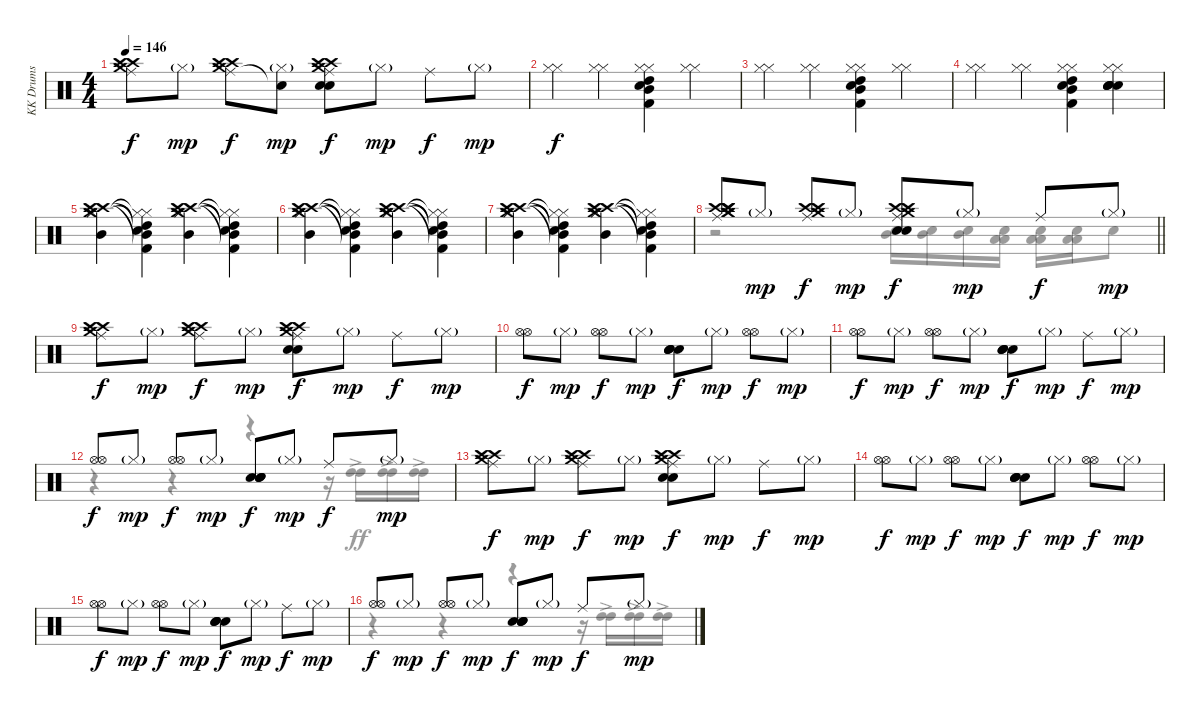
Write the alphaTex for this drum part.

\track ("KK Drums" "KK Drums") {instrument percussion}
\staff {score}
\articulation defaults
\voice
\ts (4 4)
\tempo 146
\clef neutral
\ks c
("Crash high (hit)" "Ride (middle)" "Crash medium (hit)" "Crash high (hit)").8{dy f} "Hi-Hat (closed)"{g}.8{dy mp} ("Crash high (hit)" "Ride (middle)" "Crash medium (hit)" "Crash high (hit)").8{dy f} ("Hi-Hat (closed)"{g} "Snare (hit)"{t}).8{dy mp} ("Crash high (hit)" "Ride (middle)" "Snare (hit) 2" "Snare (hit) 2" "Crash medium (hit)" "Crash high (hit)").8{dy f} "Hi-Hat (closed)"{g}.8{dy mp} "Ride (middle)".8{dy f} "Hi-Hat (closed)"{g}.8{dy mp} |
("Hi-Hat (closed)" "Hi-Hat (closed)").4{dy f} ("Hi-Hat (closed)" "Hi-Hat (closed)").4 ("Kick (hit) 2" "High Tom (hit)" "Mid Tom (hit)" "Hi-Hat (closed)" "Hi-Hat (closed)" "Snare (hit) 2").4 ("Hi-Hat (closed)" "Hi-Hat (closed)").4 |
("Hi-Hat (closed)" "Hi-Hat (closed)").4 ("Hi-Hat (closed)" "Hi-Hat (closed)").4 ("Kick (hit) 2" "High Tom (hit)" "Mid Tom (hit)" "Hi-Hat (closed)" "Hi-Hat (closed)" "Snare (hit) 2").4 ("Hi-Hat (closed)" "Hi-Hat (closed)").4 |
("Hi-Hat (closed)" "Hi-Hat (closed)").4 ("Hi-Hat (closed)" "Hi-Hat (closed)").4 ("Kick (hit) 2" "High Tom (hit)" "Mid Tom (hit)" "Hi-Hat (closed)" "Hi-Hat (closed)" "Snare (hit) 2").4 ("Snare (hit)" "Snare (hit)" "Snare (hit)" "Hi-Hat (closed)" "Hi-Hat (closed)" "Snare (hit)").4 |
("Crash high (hit)" "Crash medium (hit)" "Mid Tom (hit)" "Hi-Hat (closed)" "Hi-Hat (closed)" "Crash high (hit)").4 ("Kick (hit) 2"{t} "High Tom (hit)"{t} "Mid Tom (hit)" "Hi-Hat (closed)" "Hi-Hat (closed)"{t} "Snare (hit) 2"{t}).4 ("Crash high (hit)" "Crash medium (hit)" "Mid Tom (hit)" "Hi-Hat (closed)" "Hi-Hat (closed)" "Crash high (hit)").4 ("Kick (hit) 2"{t} "High Tom (hit)"{t} "Mid Tom (hit)" "Hi-Hat (closed)" "Hi-Hat (closed)"{t} "Snare (hit) 2"{t}).4 |
("Crash high (hit)" "Crash medium (hit)" "Mid Tom (hit)" "Hi-Hat (closed)" "Hi-Hat (closed)" "Crash high (hit)").4 ("Kick (hit) 2"{t} "High Tom (hit)"{t} "Mid Tom (hit)" "Hi-Hat (closed)" "Hi-Hat (closed)"{t} "Snare (hit) 2"{t}).4 ("Crash high (hit)" "Crash medium (hit)" "Mid Tom (hit)" "Hi-Hat (closed)" "Hi-Hat (closed)" "Crash high (hit)").4 ("Kick (hit) 2"{t} "High Tom (hit)"{t} "Mid Tom (hit)" "Hi-Hat (closed)" "Hi-Hat (closed)"{t} "Snare (hit) 2"{t}).4 |
("Crash high (hit)" "Crash medium (hit)" "Mid Tom (hit)" "Hi-Hat (closed)" "Hi-Hat (closed)" "Crash high (hit)").4 ("Kick (hit) 2"{t} "High Tom (hit)"{t} "Mid Tom (hit)" "Hi-Hat (closed)" "Hi-Hat (closed)"{t} "Snare (hit) 2"{t}).4 ("Crash high (hit)" "Crash medium (hit)" "Mid Tom (hit)" "Hi-Hat (closed)" "Hi-Hat (closed)" "Crash high (hit)").4 ("Kick (hit) 2"{t} "High Tom (hit)"{t} "Mid Tom (hit)" "Hi-Hat (closed)" "Hi-Hat (closed)"{t} "Snare (hit) 2"{t}).4 |
\barLineRight lightlight
("Crash high (hit)" "Ride (middle)" "Crash high (hit)" "Crash medium (hit)" "Crash medium (hit)" "Crash high (hit)").8 "Hi-Hat (closed)"{g}.8{dy mp} ("Crash high (hit)" "Ride (middle)" "Crash medium (hit)" "Crash high (hit)").8{dy f} "Hi-Hat (closed)"{g}.8{dy mp} ("Crash high (hit)" "Ride (middle)" "Snare (hit) 2" "Snare (hit) 2" "Crash medium (hit)" "Crash high (hit)").8{dy f} "Hi-Hat (closed)"{g}.8{dy mp} "Ride (middle)".8{dy f} "Hi-Hat (closed)"{g}.8{dy mp} |
("Crash high (hit)" "Ride (middle)" "Crash medium (hit)" "Crash high (hit)").8{dy f} "Hi-Hat (closed)"{g}.8{dy mp} ("Crash high (hit)" "Ride (middle)" "Crash medium (hit)" "Crash high (hit)").8{dy f} "Hi-Hat (closed)"{g}.8{dy mp} ("Crash high (hit)" "Ride (middle)" "Snare (hit) 2" "Snare (hit) 2" "Crash medium (hit)" "Crash high (hit)").8{dy f} "Hi-Hat (closed)"{g}.8{dy mp} "Ride (middle)".8{dy f} "Hi-Hat (closed)"{g}.8{dy mp} |
("Hi-Hat (open)" "Hi-Hat (open)").8{dy f} "Hi-Hat (closed)"{g}.8{dy mp} ("Hi-Hat (open)" "Hi-Hat (open)").8{dy f} "Hi-Hat (closed)"{g}.8{dy mp} ("Snare (hit) 2" "Snare (hit) 2" "Snare (hit) 2" "Snare (hit) 2").8{dy f} "Hi-Hat (closed)"{g}.8{dy mp} ("Hi-Hat (open)" "Hi-Hat (open)").8{dy f} "Hi-Hat (closed)"{g}.8{dy mp} |
("Hi-Hat (open)" "Hi-Hat (open)").8{dy f} "Hi-Hat (closed)"{g}.8{dy mp} ("Hi-Hat (open)" "Hi-Hat (open)").8{dy f} "Hi-Hat (closed)"{g}.8{dy mp} ("Snare (hit) 2" "Snare (hit) 2" "Snare (hit) 2" "Snare (hit) 2").8{dy f} "Hi-Hat (closed)"{g}.8{dy mp} "Ride (middle)".8{dy f} "Hi-Hat (closed)"{g}.8{dy mp} |
("Hi-Hat (open)" "Hi-Hat (open)").8{dy f} "Hi-Hat (closed)"{g}.8{dy mp} ("Hi-Hat (open)" "Hi-Hat (open)").8{dy f} "Hi-Hat (closed)"{g}.8{dy mp} ("Snare (hit) 2" "Snare (hit) 2" "Snare (hit) 2" "Snare (hit) 2").8{dy f} "Hi-Hat (closed)"{g}.8{dy mp} "Ride (middle)".8{dy f} "Hi-Hat (closed)"{g}.8{dy mp} |
("Crash high (hit)" "Ride (middle)" "Crash medium (hit)" "Crash high (hit)").8{dy f} "Hi-Hat (closed)"{g}.8{dy mp} ("Crash high (hit)" "Ride (middle)" "Crash medium (hit)" "Crash high (hit)").8{dy f} "Hi-Hat (closed)"{g}.8{dy mp} ("Crash high (hit)" "Ride (middle)" "Snare (hit) 2" "Snare (hit) 2" "Crash medium (hit)" "Crash high (hit)").8{dy f} "Hi-Hat (closed)"{g}.8{dy mp} "Ride (middle)".8{dy f} "Hi-Hat (closed)"{g}.8{dy mp} |
("Hi-Hat (open)" "Hi-Hat (open)").8{dy f} "Hi-Hat (closed)"{g}.8{dy mp} ("Hi-Hat (open)" "Hi-Hat (open)").8{dy f} "Hi-Hat (closed)"{g}.8{dy mp} ("Snare (hit) 2" "Snare (hit) 2" "Snare (hit) 2" "Snare (hit) 2").8{dy f} "Hi-Hat (closed)"{g}.8{dy mp} ("Hi-Hat (open)" "Hi-Hat (open)").8{dy f} "Hi-Hat (closed)"{g}.8{dy mp} |
("Hi-Hat (open)" "Hi-Hat (open)").8{dy f} "Hi-Hat (closed)"{g}.8{dy mp} ("Hi-Hat (open)" "Hi-Hat (open)").8{dy f} "Hi-Hat (closed)"{g}.8{dy mp} ("Snare (hit) 2" "Snare (hit) 2" "Snare (hit) 2" "Snare (hit) 2").8{dy f} "Hi-Hat (closed)"{g}.8{dy mp} "Ride (middle)".8{dy f} "Hi-Hat (closed)"{g}.8{dy mp} |
("Hi-Hat (open)" "Hi-Hat (open)").8{dy f} "Hi-Hat (closed)"{g}.8{dy mp} ("Hi-Hat (open)" "Hi-Hat (open)").8{dy f} "Hi-Hat (closed)"{g}.8{dy mp} ("Snare (hit) 2" "Snare (hit) 2" "Snare (hit) 2" "Snare (hit) 2").8{dy f} "Hi-Hat (closed)"{g}.8{dy mp} "Ride (middle)".8{dy f} "Hi-Hat (closed)"{g}.8{dy mp}
\voice
\clef neutral
\ottava regular
\simile none
\ks c
|
|
|
|
|
|
|
\barLineRight lightlight
r.2 ("Snare (hit) 2" "Mid Tom (hit)").16{dy f} ("Snare (hit) 2" "Mid Tom (hit)").16 ("Snare (hit) 2" "Mid Tom (hit)").16 ("Snare (hit) 2" "Low Tom (hit)" "Low Tom (hit)").16 ("Snare (hit) 2" "Low Tom (hit)" "Low Tom (hit)").16 ("Snare (hit) 2" "Low Tom (hit)" "Low Tom (hit)").16 "Snare (hit) 2".8 |
|
|
|
r.4 r.4 r.4 r.16 ("High Tom (hit)"{ac} "High Tom (hit)"{ac}).16{dy ff} ("High Tom (hit)"{ac} "High Tom (hit)"{ac}).16 ("High Tom (hit)"{ac} "High Tom (hit)"{ac}).16 |
|
|
|
r.4 r.4 r.4 r.16 ("High Tom (hit)"{ac} "High Tom (hit)"{ac}).16 ("High Tom (hit)"{ac} "High Tom (hit)"{ac}).16 ("High Tom (hit)"{ac} "High Tom (hit)"{ac}).16
